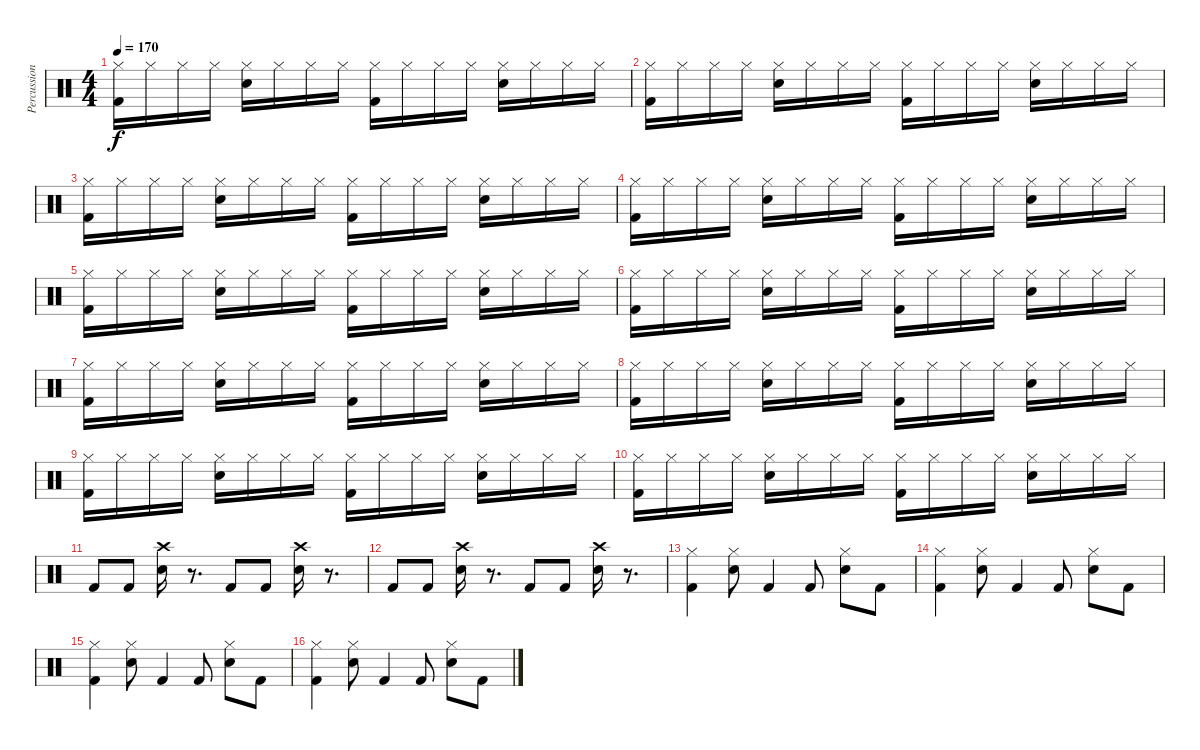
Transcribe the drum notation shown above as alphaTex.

\track ("Percussions" "Percussion") {instrument percussion}
\staff {score}
\articulation defaults
\ts (4 4)
\tempo 170
\clef neutral
\ks c
("Hi-Hat (closed)" "Kick (hit) 2").16{dy f} "Hi-Hat (closed)".16 "Hi-Hat (closed)".16 "Hi-Hat (closed)".16 ("Hi-Hat (closed)" "Snare (hit) 2").16 "Hi-Hat (closed)".16 "Hi-Hat (closed)".16 "Hi-Hat (closed)".16 ("Hi-Hat (closed)" "Kick (hit) 2").16 "Hi-Hat (closed)".16 "Hi-Hat (closed)".16 "Hi-Hat (closed)".16 ("Hi-Hat (closed)" "Snare (hit) 2").16 "Hi-Hat (closed)".16 "Hi-Hat (closed)".16 "Hi-Hat (closed)".16 |
("Hi-Hat (closed)" "Kick (hit) 2").16 "Hi-Hat (closed)".16 "Hi-Hat (closed)".16 "Hi-Hat (closed)".16 ("Hi-Hat (closed)" "Snare (hit) 2").16 "Hi-Hat (closed)".16 "Hi-Hat (closed)".16 "Hi-Hat (closed)".16 ("Hi-Hat (closed)" "Kick (hit) 2").16 "Hi-Hat (closed)".16 "Hi-Hat (closed)".16 "Hi-Hat (closed)".16 ("Hi-Hat (closed)" "Snare (hit) 2").16 "Hi-Hat (closed)".16 "Hi-Hat (closed)".16 "Hi-Hat (closed)".16 |
("Hi-Hat (closed)" "Kick (hit) 2").16 "Hi-Hat (closed)".16 "Hi-Hat (closed)".16 "Hi-Hat (closed)".16 ("Hi-Hat (closed)" "Snare (hit) 2").16 "Hi-Hat (closed)".16 "Hi-Hat (closed)".16 "Hi-Hat (closed)".16 ("Hi-Hat (closed)" "Kick (hit) 2").16 "Hi-Hat (closed)".16 "Hi-Hat (closed)".16 "Hi-Hat (closed)".16 ("Hi-Hat (closed)" "Snare (hit) 2").16 "Hi-Hat (closed)".16 "Hi-Hat (closed)".16 "Hi-Hat (closed)".16 |
("Hi-Hat (closed)" "Kick (hit) 2").16 "Hi-Hat (closed)".16 "Hi-Hat (closed)".16 "Hi-Hat (closed)".16 ("Hi-Hat (closed)" "Snare (hit) 2").16 "Hi-Hat (closed)".16 "Hi-Hat (closed)".16 "Hi-Hat (closed)".16 ("Hi-Hat (closed)" "Kick (hit) 2").16 "Hi-Hat (closed)".16 "Hi-Hat (closed)".16 "Hi-Hat (closed)".16 ("Hi-Hat (closed)" "Snare (hit) 2").16 "Hi-Hat (closed)".16 "Hi-Hat (closed)".16 "Hi-Hat (closed)".16 |
("Hi-Hat (closed)" "Kick (hit) 2").16 "Hi-Hat (closed)".16 "Hi-Hat (closed)".16 "Hi-Hat (closed)".16 ("Hi-Hat (closed)" "Snare (hit) 2").16 "Hi-Hat (closed)".16 "Hi-Hat (closed)".16 "Hi-Hat (closed)".16 ("Hi-Hat (closed)" "Kick (hit) 2").16 "Hi-Hat (closed)".16 "Hi-Hat (closed)".16 "Hi-Hat (closed)".16 ("Hi-Hat (closed)" "Snare (hit) 2").16 "Hi-Hat (closed)".16 "Hi-Hat (closed)".16 "Hi-Hat (closed)".16 |
("Hi-Hat (closed)" "Kick (hit) 2").16 "Hi-Hat (closed)".16 "Hi-Hat (closed)".16 "Hi-Hat (closed)".16 ("Hi-Hat (closed)" "Snare (hit) 2").16 "Hi-Hat (closed)".16 "Hi-Hat (closed)".16 "Hi-Hat (closed)".16 ("Hi-Hat (closed)" "Kick (hit) 2").16 "Hi-Hat (closed)".16 "Hi-Hat (closed)".16 "Hi-Hat (closed)".16 ("Hi-Hat (closed)" "Snare (hit) 2").16 "Hi-Hat (closed)".16 "Hi-Hat (closed)".16 "Hi-Hat (closed)".16 |
("Hi-Hat (closed)" "Kick (hit) 2").16 "Hi-Hat (closed)".16 "Hi-Hat (closed)".16 "Hi-Hat (closed)".16 ("Hi-Hat (closed)" "Snare (hit) 2").16 "Hi-Hat (closed)".16 "Hi-Hat (closed)".16 "Hi-Hat (closed)".16 ("Hi-Hat (closed)" "Kick (hit) 2").16 "Hi-Hat (closed)".16 "Hi-Hat (closed)".16 "Hi-Hat (closed)".16 ("Hi-Hat (closed)" "Snare (hit) 2").16 "Hi-Hat (closed)".16 "Hi-Hat (closed)".16 "Hi-Hat (closed)".16 |
("Hi-Hat (closed)" "Kick (hit) 2").16 "Hi-Hat (closed)".16 "Hi-Hat (closed)".16 "Hi-Hat (closed)".16 ("Hi-Hat (closed)" "Snare (hit) 2").16 "Hi-Hat (closed)".16 "Hi-Hat (closed)".16 "Hi-Hat (closed)".16 ("Hi-Hat (closed)" "Kick (hit) 2").16 "Hi-Hat (closed)".16 "Hi-Hat (closed)".16 "Hi-Hat (closed)".16 ("Hi-Hat (closed)" "Snare (hit) 2").16 "Hi-Hat (closed)".16 "Hi-Hat (closed)".16 "Hi-Hat (closed)".16 |
("Hi-Hat (closed)" "Kick (hit) 2").16 "Hi-Hat (closed)".16 "Hi-Hat (closed)".16 "Hi-Hat (closed)".16 ("Hi-Hat (closed)" "Snare (hit) 2").16 "Hi-Hat (closed)".16 "Hi-Hat (closed)".16 "Hi-Hat (closed)".16 ("Hi-Hat (closed)" "Kick (hit) 2").16 "Hi-Hat (closed)".16 "Hi-Hat (closed)".16 "Hi-Hat (closed)".16 ("Hi-Hat (closed)" "Snare (hit) 2").16 "Hi-Hat (closed)".16 "Hi-Hat (closed)".16 "Hi-Hat (closed)".16 |
("Hi-Hat (closed)" "Kick (hit) 2").16 "Hi-Hat (closed)".16 "Hi-Hat (closed)".16 "Hi-Hat (closed)".16 ("Hi-Hat (closed)" "Snare (hit) 2").16 "Hi-Hat (closed)".16 "Hi-Hat (closed)".16 "Hi-Hat (closed)".16 ("Hi-Hat (closed)" "Kick (hit) 2").16 "Hi-Hat (closed)".16 "Hi-Hat (closed)".16 "Hi-Hat (closed)".16 ("Hi-Hat (closed)" "Snare (hit) 2").16 "Hi-Hat (closed)".16 "Hi-Hat (closed)".16 "Hi-Hat (closed)".16 |
"Kick (hit) 2".8 "Kick (hit) 2".8 ("Snare (hit) 2" "Crash high (hit)").16 r.8{d} "Kick (hit) 2".8 "Kick (hit) 2".8 ("Snare (hit) 2" "Crash high (hit)").16 r.8{d} |
"Kick (hit) 2".8 "Kick (hit) 2".8 ("Snare (hit) 2" "Crash high (hit)").16 r.8{d} "Kick (hit) 2".8 "Kick (hit) 2".8 ("Snare (hit) 2" "Crash high (hit)").16 r.8{d} |
("Hi-Hat (closed)" "Kick (hit) 2").4 ("Snare (hit) 2" "Hi-Hat (closed)").8 "Kick (hit) 2".4 "Kick (hit) 2".8 ("Snare (hit) 2" "Hi-Hat (closed)").8 "Kick (hit) 2".8 |
("Hi-Hat (closed)" "Kick (hit) 2").4 ("Snare (hit) 2" "Hi-Hat (closed)").8 "Kick (hit) 2".4 "Kick (hit) 2".8 ("Snare (hit) 2" "Hi-Hat (closed)").8 "Kick (hit) 2".8 |
("Hi-Hat (closed)" "Kick (hit) 2").4 ("Snare (hit) 2" "Hi-Hat (closed)").8 "Kick (hit) 2".4 "Kick (hit) 2".8 ("Snare (hit) 2" "Hi-Hat (closed)").8 "Kick (hit) 2".8 |
("Hi-Hat (closed)" "Kick (hit) 2").4 ("Snare (hit) 2" "Hi-Hat (closed)").8 "Kick (hit) 2".4 "Kick (hit) 2".8 ("Snare (hit) 2" "Hi-Hat (closed)").8 "Kick (hit) 2".8
